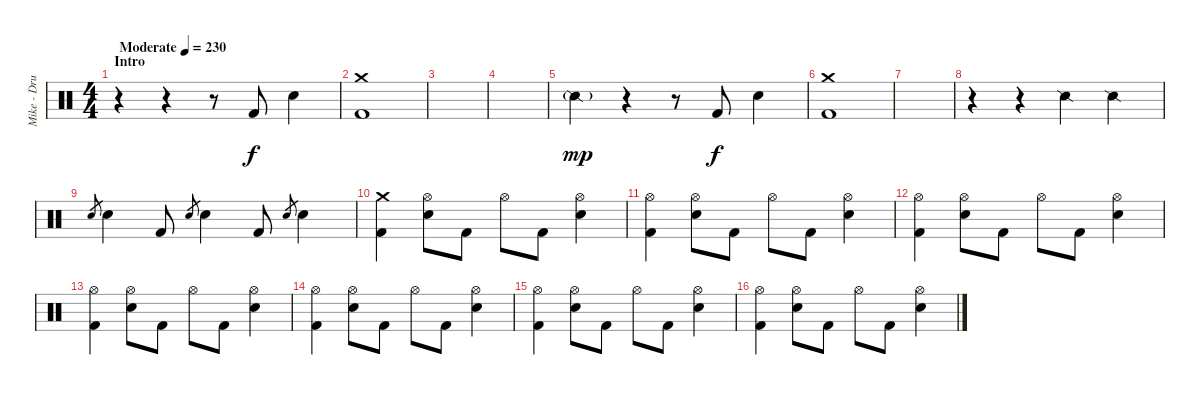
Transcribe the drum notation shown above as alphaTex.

\track ("Mike - Drums" "Mike - Dru") {instrument percussion}
\staff {score}
\articulation defaults
\ts (4 4)
\section ("" "Intro")
\tempo (230 "Moderate")
\clef neutral
\ks c
r.4{dy f} r.4 r.8 "Kick (hit) 2".8 "Electric Snare (hit)".4 |
("Crash medium (hit)" "Kick (hit) 2").1 |
|
|
"Snare (side stick) 2"{g}.4{dy mp} r.4 r.8 "Kick (hit) 2".8{dy f} "Electric Snare (hit)".4 |
("Crash medium (hit)" "Kick (hit) 2").1 |
|
r.4 r.4 "Snare (side stick) 2".4 "Snare (side stick) 2".4 |
"Electric Snare (hit)".8{gr} "Electric Snare (hit)".4 "Kick (hit) 2".8 "Electric Snare (hit)".8{gr} "Electric Snare (hit)".4 "Kick (hit) 2".8 "Electric Snare (hit)".8{gr} "Electric Snare (hit)".4 |
("Crash medium (hit)" "Kick (hit) 2").4 ("Hi-Hat (open)" "Electric Snare (hit)").8 "Kick (hit) 2".8 "Hi-Hat (open)".8 "Kick (hit) 2".8 ("Hi-Hat (open)" "Electric Snare (hit)").4 |
("Hi-Hat (open)" "Kick (hit) 2").4 ("Hi-Hat (open)" "Electric Snare (hit)").8 "Kick (hit) 2".8 "Hi-Hat (open)".8 "Kick (hit) 2".8 ("Hi-Hat (open)" "Electric Snare (hit)").4 |
("Hi-Hat (open)" "Kick (hit) 2").4 ("Hi-Hat (open)" "Electric Snare (hit)").8 "Kick (hit) 2".8 "Hi-Hat (open)".8 "Kick (hit) 2".8 ("Hi-Hat (open)" "Electric Snare (hit)").4 |
("Hi-Hat (open)" "Kick (hit) 2").4 ("Hi-Hat (open)" "Electric Snare (hit)").8 "Kick (hit) 2".8 "Hi-Hat (open)".8 "Kick (hit) 2".8 ("Hi-Hat (open)" "Electric Snare (hit)").4 |
("Hi-Hat (open)" "Kick (hit) 2").4 ("Hi-Hat (open)" "Electric Snare (hit)").8 "Kick (hit) 2".8 "Hi-Hat (open)".8 "Kick (hit) 2".8 ("Hi-Hat (open)" "Electric Snare (hit)").4 |
("Hi-Hat (open)" "Kick (hit) 2").4 ("Hi-Hat (open)" "Electric Snare (hit)").8 "Kick (hit) 2".8 "Hi-Hat (open)".8 "Kick (hit) 2".8 ("Hi-Hat (open)" "Electric Snare (hit)").4 |
("Hi-Hat (open)" "Kick (hit) 2").4 ("Hi-Hat (open)" "Electric Snare (hit)").8 "Kick (hit) 2".8 "Hi-Hat (open)".8 "Kick (hit) 2".8 ("Hi-Hat (open)" "Electric Snare (hit)").4
